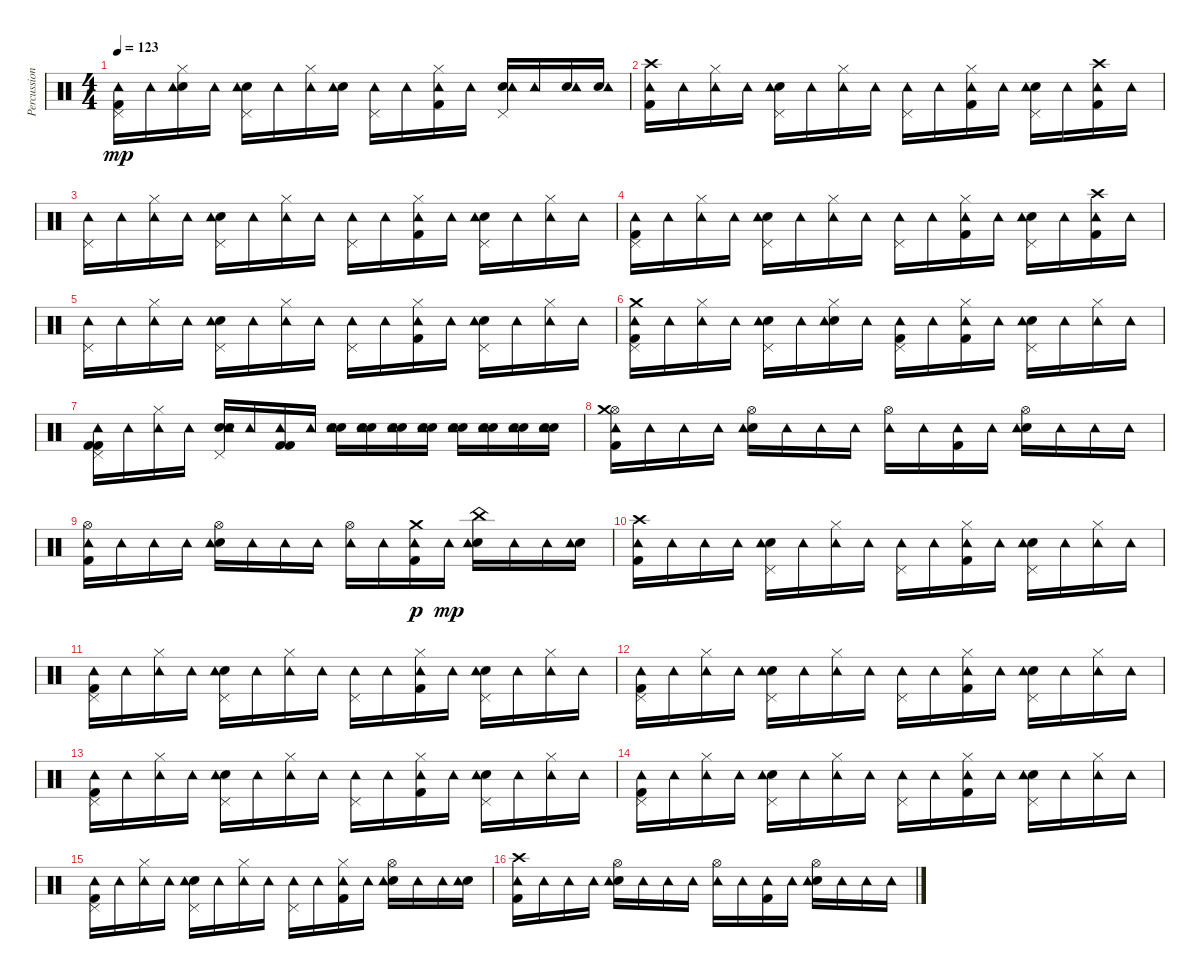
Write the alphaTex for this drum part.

\track ("Percussions" "Percussion") {instrument percussion}
\staff {score}
\articulation defaults
\ts (4 4)
\tempo 123
\clef neutral
\ks c
("Kick (hit) 2" "Pedal Hi-Hat (hit)" "Tambourine (hit)").16{dy mp} "Tambourine (hit)".16 ("Snare (hit) 2" "Hi-Hat (closed)" "Tambourine (hit)").16 "Tambourine (hit)".16 ("Snare (hit) 2" "Pedal Hi-Hat (hit)" "Tambourine (hit)").16 "Tambourine (hit)".16 ("Hi-Hat (closed)" "Tambourine (hit)").16 ("Snare (hit) 2" "Tambourine (hit)").16 ("Pedal Hi-Hat (hit)" "Tambourine (hit)").16 "Tambourine (hit)".16 ("Kick (hit) 2" "Hi-Hat (closed)" "Tambourine (hit)").16 "Tambourine (hit)".16 ("Snare (hit) 2" "Pedal Hi-Hat (hit)" "Tambourine (hit)").16 "Tambourine (hit)".16 ("Snare (hit) 2" "Tambourine (hit)").16 ("Snare (hit) 2" "Tambourine (hit)").16 |
("Kick (hit) 2" "Crash high (hit)" "Tambourine (hit)").16 "Tambourine (hit)".16 ("Hi-Hat (closed)" "Tambourine (hit)").16 "Tambourine (hit)".16 ("Snare (hit) 2" "Pedal Hi-Hat (hit)" "Tambourine (hit)").16 "Tambourine (hit)".16 ("Hi-Hat (closed)" "Tambourine (hit)").16 "Tambourine (hit)".16 ("Pedal Hi-Hat (hit)" "Tambourine (hit)").16 "Tambourine (hit)".16 ("Kick (hit) 2" "Hi-Hat (closed)" "Tambourine (hit)").16 "Tambourine (hit)".16 ("Snare (hit) 2" "Pedal Hi-Hat (hit)" "Tambourine (hit)").16 "Tambourine (hit)".16 ("Kick (hit) 2" "Crash high (hit)" "Tambourine (hit)").16 "Tambourine (hit)".16 |
("Pedal Hi-Hat (hit)" "Tambourine (hit)").16 "Tambourine (hit)".16 ("Hi-Hat (closed)" "Tambourine (hit)").16 "Tambourine (hit)".16 ("Snare (hit) 2" "Pedal Hi-Hat (hit)" "Tambourine (hit)").16 "Tambourine (hit)".16 ("Hi-Hat (closed)" "Tambourine (hit)").16 "Tambourine (hit)".16 ("Pedal Hi-Hat (hit)" "Tambourine (hit)").16 "Tambourine (hit)".16 ("Kick (hit) 2" "Hi-Hat (closed)" "Tambourine (hit)").16 "Tambourine (hit)".16 ("Snare (hit) 2" "Pedal Hi-Hat (hit)" "Tambourine (hit)").16 "Tambourine (hit)".16 ("Hi-Hat (closed)" "Tambourine (hit)").16 "Tambourine (hit)".16 |
("Kick (hit) 2" "Pedal Hi-Hat (hit)" "Tambourine (hit)").16 "Tambourine (hit)".16 ("Hi-Hat (closed)" "Tambourine (hit)").16 "Tambourine (hit)".16 ("Snare (hit) 2" "Pedal Hi-Hat (hit)" "Tambourine (hit)").16 "Tambourine (hit)".16 ("Hi-Hat (closed)" "Tambourine (hit)").16 "Tambourine (hit)".16 ("Pedal Hi-Hat (hit)" "Tambourine (hit)").16 "Tambourine (hit)".16 ("Kick (hit) 2" "Hi-Hat (closed)" "Tambourine (hit)").16 "Tambourine (hit)".16 ("Snare (hit) 2" "Pedal Hi-Hat (hit)" "Tambourine (hit)").16 "Tambourine (hit)".16 ("Kick (hit) 2" "Crash high (hit)" "Tambourine (hit)").16 "Tambourine (hit)".16 |
("Pedal Hi-Hat (hit)" "Tambourine (hit)").16 "Tambourine (hit)".16 ("Hi-Hat (closed)" "Tambourine (hit)").16 "Tambourine (hit)".16 ("Snare (hit) 2" "Pedal Hi-Hat (hit)" "Tambourine (hit)").16 "Tambourine (hit)".16 ("Hi-Hat (closed)" "Tambourine (hit)").16 "Tambourine (hit)".16 ("Pedal Hi-Hat (hit)" "Tambourine (hit)").16 "Tambourine (hit)".16 ("Kick (hit) 2" "Hi-Hat (closed)" "Tambourine (hit)").16 "Tambourine (hit)".16 ("Snare (hit) 2" "Pedal Hi-Hat (hit)" "Tambourine (hit)").16 "Tambourine (hit)".16 ("Hi-Hat (closed)" "Tambourine (hit)").16 "Tambourine (hit)".16 |
("Kick (hit) 2" "Pedal Hi-Hat (hit)" "Tambourine (hit)" "Crash medium (hit)").16 "Tambourine (hit)".16 ("Hi-Hat (closed)" "Tambourine (hit)").16 "Tambourine (hit)".16 ("Snare (hit) 2" "Pedal Hi-Hat (hit)" "Tambourine (hit)").16 "Tambourine (hit)".16 ("Snare (hit) 2" "Hi-Hat (closed)" "Tambourine (hit)").16 "Tambourine (hit)".16 ("Kick (hit) 2" "Pedal Hi-Hat (hit)" "Tambourine (hit)").16 "Tambourine (hit)".16 ("Kick (hit) 2" "Hi-Hat (closed)" "Tambourine (hit)").16 "Tambourine (hit)".16 ("Snare (hit) 2" "Pedal Hi-Hat (hit)" "Tambourine (hit)").16 "Tambourine (hit)".16 ("Hi-Hat (closed)" "Tambourine (hit)").16 "Tambourine (hit)".16 |
("Kick (hit) 2" "Kick (hit) 2" "Pedal Hi-Hat (hit)" "Tambourine (hit)").16 "Tambourine (hit)".16 ("Hi-Hat (closed)" "Tambourine (hit)").16 "Tambourine (hit)".16 ("Snare (hit) 2" "Snare (hit) 2" "Pedal Hi-Hat (hit)" "Tambourine (hit)").16 "Tambourine (hit)".16 ("Kick (hit) 2" "Kick (hit) 2" "Tambourine (hit)").16 "Tambourine (hit)".16 ("Snare (hit) 2" "Snare (hit) 2" "Tambourine (hit)").16 ("Snare (hit) 2" "Snare (hit) 2" "Tambourine (hit)").16 ("Snare (hit) 2" "Snare (hit) 2" "Tambourine (hit)").16 ("Snare (hit) 2" "Snare (hit) 2" "Tambourine (hit)").16 ("Snare (hit) 2" "Snare (hit) 2" "Tambourine (hit)").16 ("Snare (hit) 2" "Snare (hit) 2" "Tambourine (hit)").16 ("Snare (hit) 2" "Snare (hit) 2" "Tambourine (hit)").16 ("Snare (hit) 2" "Snare (hit) 2" "Tambourine (hit)").16 |
("Kick (hit) 2" "Hi-Hat (open)" "Tambourine (hit)" "Crash medium (hit)").16 "Tambourine (hit)".16 "Tambourine (hit)".16 "Tambourine (hit)".16 ("Snare (hit) 2" "Hi-Hat (open)" "Tambourine (hit)").16 "Tambourine (hit)".16 "Tambourine (hit)".16 "Tambourine (hit)".16 ("Hi-Hat (open)" "Tambourine (hit)").16 "Tambourine (hit)".16 ("Kick (hit) 2" "Tambourine (hit)").16 "Tambourine (hit)".16 ("Snare (hit) 2" "Hi-Hat (open)" "Tambourine (hit)").16 "Tambourine (hit)".16 "Tambourine (hit)".16 "Tambourine (hit)".16 |
("Kick (hit) 2" "Hi-Hat (open)" "Tambourine (hit)").16 "Tambourine (hit)".16 "Tambourine (hit)".16 "Tambourine (hit)".16 ("Snare (hit) 2" "Hi-Hat (open)" "Tambourine (hit)").16 "Tambourine (hit)".16 "Tambourine (hit)".16 "Tambourine (hit)".16 ("Hi-Hat (open)" "Tambourine (hit)").16 "Tambourine (hit)".16 ("Kick (hit) 2" "Tambourine (hit)" "Crash medium (hit)").16{dy p} "Tambourine (hit)".16{dy mp} ("Snare (hit) 2" "China (hit)" "Tambourine (hit)").16 "Tambourine (hit)".16 "Tambourine (hit)".16 ("Snare (hit) 2" "Tambourine (hit)").16 |
("Kick (hit) 2" "Crash high (hit)" "Tambourine (hit)").16 "Tambourine (hit)".16 "Tambourine (hit)".16 "Tambourine (hit)".16 ("Snare (hit) 2" "Pedal Hi-Hat (hit)" "Tambourine (hit)").16 "Tambourine (hit)".16 ("Hi-Hat (closed)" "Tambourine (hit)").16 "Tambourine (hit)".16 ("Pedal Hi-Hat (hit)" "Tambourine (hit)").16 "Tambourine (hit)".16 ("Kick (hit) 2" "Hi-Hat (closed)" "Tambourine (hit)").16 "Tambourine (hit)".16 ("Snare (hit) 2" "Pedal Hi-Hat (hit)" "Tambourine (hit)").16 "Tambourine (hit)".16 ("Hi-Hat (closed)" "Tambourine (hit)").16 "Tambourine (hit)".16 |
("Kick (hit) 2" "Pedal Hi-Hat (hit)" "Tambourine (hit)").16 "Tambourine (hit)".16 ("Hi-Hat (closed)" "Tambourine (hit)").16 "Tambourine (hit)".16 ("Snare (hit) 2" "Pedal Hi-Hat (hit)" "Tambourine (hit)").16 "Tambourine (hit)".16 ("Hi-Hat (closed)" "Tambourine (hit)").16 "Tambourine (hit)".16 ("Pedal Hi-Hat (hit)" "Tambourine (hit)").16 "Tambourine (hit)".16 ("Kick (hit) 2" "Hi-Hat (closed)" "Tambourine (hit)").16 "Tambourine (hit)".16 ("Snare (hit) 2" "Pedal Hi-Hat (hit)" "Tambourine (hit)").16 "Tambourine (hit)".16 ("Hi-Hat (closed)" "Tambourine (hit)").16 "Tambourine (hit)".16 |
("Kick (hit) 2" "Pedal Hi-Hat (hit)" "Tambourine (hit)").16 "Tambourine (hit)".16 ("Hi-Hat (closed)" "Tambourine (hit)").16 "Tambourine (hit)".16 ("Snare (hit) 2" "Pedal Hi-Hat (hit)" "Tambourine (hit)").16 "Tambourine (hit)".16 ("Hi-Hat (closed)" "Tambourine (hit)").16 "Tambourine (hit)".16 ("Pedal Hi-Hat (hit)" "Tambourine (hit)").16 "Tambourine (hit)".16 ("Kick (hit) 2" "Hi-Hat (closed)" "Tambourine (hit)").16 "Tambourine (hit)".16 ("Snare (hit) 2" "Pedal Hi-Hat (hit)" "Tambourine (hit)").16 "Tambourine (hit)".16 ("Hi-Hat (closed)" "Tambourine (hit)").16 "Tambourine (hit)".16 |
("Kick (hit) 2" "Pedal Hi-Hat (hit)" "Tambourine (hit)").16 "Tambourine (hit)".16 ("Hi-Hat (closed)" "Tambourine (hit)").16 "Tambourine (hit)".16 ("Snare (hit) 2" "Pedal Hi-Hat (hit)" "Tambourine (hit)").16 "Tambourine (hit)".16 ("Hi-Hat (closed)" "Tambourine (hit)").16 "Tambourine (hit)".16 ("Pedal Hi-Hat (hit)" "Tambourine (hit)").16 "Tambourine (hit)".16 ("Kick (hit) 2" "Hi-Hat (closed)" "Tambourine (hit)").16 "Tambourine (hit)".16 ("Snare (hit) 2" "Pedal Hi-Hat (hit)" "Tambourine (hit)").16 "Tambourine (hit)".16 ("Hi-Hat (closed)" "Tambourine (hit)").16 "Tambourine (hit)".16 |
("Kick (hit) 2" "Pedal Hi-Hat (hit)" "Tambourine (hit)").16 "Tambourine (hit)".16 ("Hi-Hat (closed)" "Tambourine (hit)").16 "Tambourine (hit)".16 ("Snare (hit) 2" "Pedal Hi-Hat (hit)" "Tambourine (hit)").16 "Tambourine (hit)".16 ("Hi-Hat (closed)" "Tambourine (hit)").16 "Tambourine (hit)".16 ("Pedal Hi-Hat (hit)" "Tambourine (hit)").16 "Tambourine (hit)".16 ("Kick (hit) 2" "Hi-Hat (closed)" "Tambourine (hit)").16 "Tambourine (hit)".16 ("Snare (hit) 2" "Pedal Hi-Hat (hit)" "Tambourine (hit)").16 "Tambourine (hit)".16 ("Hi-Hat (closed)" "Tambourine (hit)").16 "Tambourine (hit)".16 |
("Kick (hit) 2" "Pedal Hi-Hat (hit)" "Tambourine (hit)").16 "Tambourine (hit)".16 ("Hi-Hat (closed)" "Tambourine (hit)").16 "Tambourine (hit)".16 ("Snare (hit) 2" "Pedal Hi-Hat (hit)" "Tambourine (hit)").16 "Tambourine (hit)".16 ("Hi-Hat (closed)" "Tambourine (hit)").16 "Tambourine (hit)".16 ("Pedal Hi-Hat (hit)" "Tambourine (hit)").16 "Tambourine (hit)".16 ("Kick (hit) 2" "Hi-Hat (closed)" "Tambourine (hit)").16 "Tambourine (hit)".16 ("Snare (hit) 2" "Hi-Hat (open)" "Tambourine (hit)").16 "Tambourine (hit)".16 "Tambourine (hit)".16 ("Snare (hit) 2" "Tambourine (hit)").16 |
("Kick (hit) 2" "Crash high (hit)" "Tambourine (hit)").16 "Tambourine (hit)".16 "Tambourine (hit)".16 "Tambourine (hit)".16 ("Snare (hit) 2" "Hi-Hat (open)" "Tambourine (hit)").16 "Tambourine (hit)".16 "Tambourine (hit)".16 "Tambourine (hit)".16 ("Hi-Hat (open)" "Tambourine (hit)").16 "Tambourine (hit)".16 ("Kick (hit) 2" "Tambourine (hit)").16 "Tambourine (hit)".16 ("Snare (hit) 2" "Hi-Hat (open)" "Tambourine (hit)").16 "Tambourine (hit)".16 "Tambourine (hit)".16 "Tambourine (hit)".16
